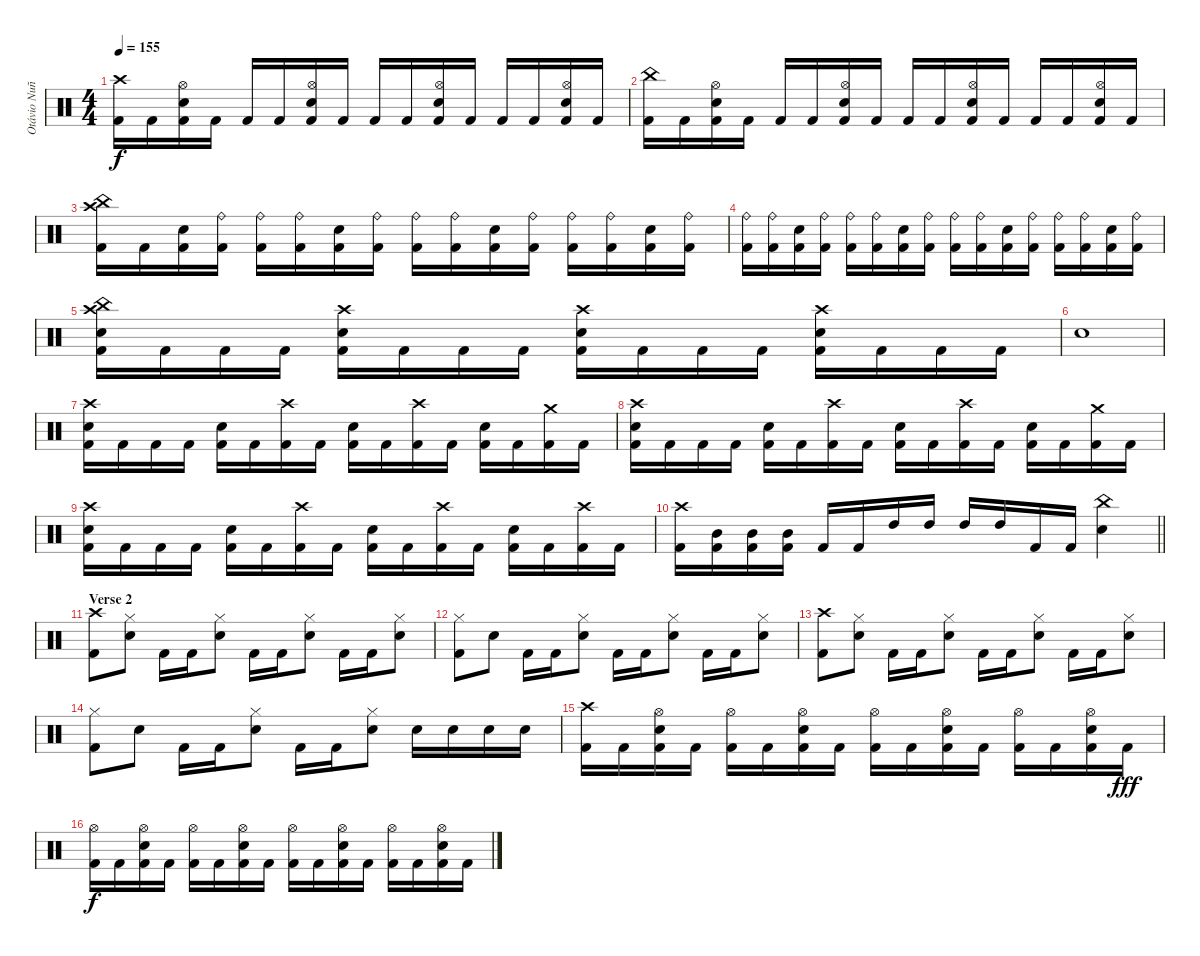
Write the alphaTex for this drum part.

\track ("Otávio Nuñez" "Otávio Nuñ") {instrument percussion}
\staff {score}
\articulation defaults
\ts (4 4)
\tempo 155
\clef neutral
\ks c
("Crash high (hit)" "Kick (hit) 2").16{dy f} "Kick (hit) 2".16 ("Hi-Hat (open)" "Electric Snare (hit)" "Kick (hit) 2").16 "Kick (hit) 2".16 "Kick (hit) 2".16 "Kick (hit) 2".16 ("Hi-Hat (open)" "Electric Snare (hit)" "Kick (hit) 2").16 "Kick (hit) 2".16 "Kick (hit) 2".16 "Kick (hit) 2".16 ("Hi-Hat (open)" "Electric Snare (hit)" "Kick (hit) 2").16 "Kick (hit) 2".16 "Kick (hit) 2".16 "Kick (hit) 2".16 ("Hi-Hat (open)" "Electric Snare (hit)" "Kick (hit) 2").16 "Kick (hit) 2".16 |
("China (hit)" "Kick (hit) 2").16 "Kick (hit) 2".16 ("Hi-Hat (open)" "Electric Snare (hit)" "Kick (hit) 2").16 "Kick (hit) 2".16 "Kick (hit) 2".16 "Kick (hit) 2".16 ("Hi-Hat (open)" "Electric Snare (hit)" "Kick (hit) 2").16 "Kick (hit) 2".16 "Kick (hit) 2".16 "Kick (hit) 2".16 ("Hi-Hat (open)" "Electric Snare (hit)" "Kick (hit) 2").16 "Kick (hit) 2".16 "Kick (hit) 2".16 "Kick (hit) 2".16 ("Hi-Hat (open)" "Electric Snare (hit)" "Kick (hit) 2").16 "Kick (hit) 2".16 |
("China (hit)" "Crash high (hit)" "Kick (hit) 2").16 "Kick (hit) 2".16 ("Electric Snare (hit)" "Kick (hit) 2").16 ("Ride (bell)" "Kick (hit) 2").16 ("Ride (bell)" "Kick (hit) 2").16 ("Ride (bell)" "Kick (hit) 2").16 ("Electric Snare (hit)" "Kick (hit) 2").16 ("Ride (bell)" "Kick (hit) 2").16 ("Ride (bell)" "Kick (hit) 2").16 ("Ride (bell)" "Kick (hit) 2").16 ("Electric Snare (hit)" "Kick (hit) 2").16 ("Ride (bell)" "Kick (hit) 2").16 ("Ride (bell)" "Kick (hit) 2").16 ("Ride (bell)" "Kick (hit) 2").16 ("Electric Snare (hit)" "Kick (hit) 2").16 ("Ride (bell)" "Kick (hit) 2").16 |
("Ride (bell)" "Kick (hit) 2").16 ("Ride (bell)" "Kick (hit) 2").16 ("Electric Snare (hit)" "Kick (hit) 2").16 ("Ride (bell)" "Kick (hit) 2").16 ("Ride (bell)" "Kick (hit) 2").16 ("Ride (bell)" "Kick (hit) 2").16 ("Electric Snare (hit)" "Kick (hit) 2").16 ("Ride (bell)" "Kick (hit) 2").16 ("Ride (bell)" "Kick (hit) 2").16 ("Ride (bell)" "Kick (hit) 2").16 ("Electric Snare (hit)" "Kick (hit) 2").16 ("Ride (bell)" "Kick (hit) 2").16 ("Ride (bell)" "Kick (hit) 2").16 ("Ride (bell)" "Kick (hit) 2").16 ("Electric Snare (hit)" "Kick (hit) 2").16 ("Ride (bell)" "Kick (hit) 2").16 |
("Crash high (hit)" "China (hit)" "Electric Snare (hit)" "Kick (hit) 2").16 "Kick (hit) 2".16 "Kick (hit) 2".16 "Kick (hit) 2".16 ("Crash high (hit)" "Electric Snare (hit)" "Kick (hit) 2").16 "Kick (hit) 2".16 "Kick (hit) 2".16 "Kick (hit) 2".16 ("Crash high (hit)" "Electric Snare (hit)" "Kick (hit) 2").16 "Kick (hit) 2".16 "Kick (hit) 2".16 "Kick (hit) 2".16 ("Crash high (hit)" "Electric Snare (hit)" "Kick (hit) 2").16 "Kick (hit) 2".16 "Kick (hit) 2".16 "Kick (hit) 2".16 |
"Electric Snare (hit)".1 |
("Crash high (hit)" "Electric Snare (hit)" "Kick (hit) 2").16 "Kick (hit) 2".16 "Kick (hit) 2".16 "Kick (hit) 2".16 ("Electric Snare (hit)" "Kick (hit) 2").16 "Kick (hit) 2".16 ("Crash high (hit)" "Kick (hit) 2").16 "Kick (hit) 2".16 ("Electric Snare (hit)" "Kick (hit) 2").16 "Kick (hit) 2".16 ("Crash high (hit)" "Kick (hit) 2").16 "Kick (hit) 2".16 ("Electric Snare (hit)" "Kick (hit) 2").16 "Kick (hit) 2".16 ("Crash medium (hit)" "Kick (hit) 2").16 "Kick (hit) 2".16 |
("Crash high (hit)" "Electric Snare (hit)" "Kick (hit) 2").16 "Kick (hit) 2".16 "Kick (hit) 2".16 "Kick (hit) 2".16 ("Electric Snare (hit)" "Kick (hit) 2").16 "Kick (hit) 2".16 ("Crash high (hit)" "Kick (hit) 2").16 "Kick (hit) 2".16 ("Electric Snare (hit)" "Kick (hit) 2").16 "Kick (hit) 2".16 ("Crash high (hit)" "Kick (hit) 2").16 "Kick (hit) 2".16 ("Electric Snare (hit)" "Kick (hit) 2").16 "Kick (hit) 2".16 ("Crash medium (hit)" "Kick (hit) 2").16 "Kick (hit) 2".16 |
("Crash high (hit)" "Electric Snare (hit)" "Kick (hit) 2").16 "Kick (hit) 2".16 "Kick (hit) 2".16 "Kick (hit) 2".16 ("Electric Snare (hit)" "Kick (hit) 2").16 "Kick (hit) 2".16 ("Crash high (hit)" "Kick (hit) 2").16 "Kick (hit) 2".16 ("Electric Snare (hit)" "Kick (hit) 2").16 "Kick (hit) 2".16 ("Crash high (hit)" "Kick (hit) 2").16 "Kick (hit) 2".16 ("Electric Snare (hit)" "Kick (hit) 2").16 "Kick (hit) 2".16 ("Crash high (hit)" "Kick (hit) 2").16 "Kick (hit) 2".16 |
\barLineRight lightlight
("Crash high (hit)" "Kick (hit) 2").16 ("Mid Tom (hit)" "Kick (hit) 2").16 ("Mid Tom (hit)" "Kick (hit) 2").16 ("Mid Tom (hit)" "Kick (hit) 2").16 "Kick (hit) 2".16 "Kick (hit) 2".16 "High Tom (hit)".16 "High Tom (hit)".16 "High Tom (hit)".16 "High Tom (hit)".16 "Kick (hit) 2".16 "Kick (hit) 2".16 ("China (hit)" "Electric Snare (hit)").4 |
\section ("" "Verse 2")
("Crash high (hit)" "Kick (hit) 2").8 ("Hi-Hat (closed)" "Electric Snare (hit)").8 "Kick (hit) 2".16 "Kick (hit) 2".16 ("Hi-Hat (closed)" "Electric Snare (hit)").8 "Kick (hit) 2".16 "Kick (hit) 2".16 ("Hi-Hat (closed)" "Electric Snare (hit)").8 "Kick (hit) 2".16 "Kick (hit) 2".16 ("Hi-Hat (closed)" "Electric Snare (hit)").8 |
("Hi-Hat (closed)" "Kick (hit) 2").8 "Electric Snare (hit)".8 "Kick (hit) 2".16 "Kick (hit) 2".16 ("Hi-Hat (closed)" "Electric Snare (hit)").8 "Kick (hit) 2".16 "Kick (hit) 2".16 ("Hi-Hat (closed)" "Electric Snare (hit)").8 "Kick (hit) 2".16 "Kick (hit) 2".16 ("Hi-Hat (closed)" "Electric Snare (hit)").8 |
("Crash high (hit)" "Kick (hit) 2").8 ("Hi-Hat (closed)" "Electric Snare (hit)").8 "Kick (hit) 2".16 "Kick (hit) 2".16 ("Hi-Hat (closed)" "Electric Snare (hit)").8 "Kick (hit) 2".16 "Kick (hit) 2".16 ("Hi-Hat (closed)" "Electric Snare (hit)").8 "Kick (hit) 2".16 "Kick (hit) 2".16 ("Hi-Hat (closed)" "Electric Snare (hit)").8 |
("Hi-Hat (closed)" "Kick (hit) 2").8 "Electric Snare (hit)".8 "Kick (hit) 2".16 "Kick (hit) 2".16 ("Hi-Hat (closed)" "Electric Snare (hit)").8 "Kick (hit) 2".16 "Kick (hit) 2".16 ("Hi-Hat (closed)" "Electric Snare (hit)").8 "Electric Snare (hit)".16 "Electric Snare (hit)".16 "Electric Snare (hit)".16 "Electric Snare (hit)".16 |
("Crash high (hit)" "Kick (hit) 2").16 "Kick (hit) 2".16 ("Hi-Hat (open)" "Electric Snare (hit)" "Kick (hit) 2").16 "Kick (hit) 2".16 ("Hi-Hat (open)" "Kick (hit) 2").16 "Kick (hit) 2".16 ("Hi-Hat (open)" "Electric Snare (hit)" "Kick (hit) 2").16 "Kick (hit) 2".16 ("Hi-Hat (open)" "Kick (hit) 2").16 "Kick (hit) 2".16 ("Hi-Hat (open)" "Electric Snare (hit)" "Kick (hit) 2").16 "Kick (hit) 2".16 ("Hi-Hat (open)" "Kick (hit) 2").16 "Kick (hit) 2".16 ("Hi-Hat (open)" "Electric Snare (hit)" "Kick (hit) 2").16 "Kick (hit) 2".16{dy fff} |
("Hi-Hat (open)" "Kick (hit) 2").16{dy f} "Kick (hit) 2".16 ("Hi-Hat (open)" "Electric Snare (hit)" "Kick (hit) 2").16 "Kick (hit) 2".16 ("Hi-Hat (open)" "Kick (hit) 2").16 "Kick (hit) 2".16 ("Hi-Hat (open)" "Electric Snare (hit)" "Kick (hit) 2").16 "Kick (hit) 2".16 ("Hi-Hat (open)" "Kick (hit) 2").16 "Kick (hit) 2".16 ("Hi-Hat (open)" "Electric Snare (hit)" "Kick (hit) 2").16 "Kick (hit) 2".16 ("Hi-Hat (open)" "Kick (hit) 2").16 "Kick (hit) 2".16 ("Hi-Hat (open)" "Electric Snare (hit)" "Kick (hit) 2").16 "Kick (hit) 2".16
